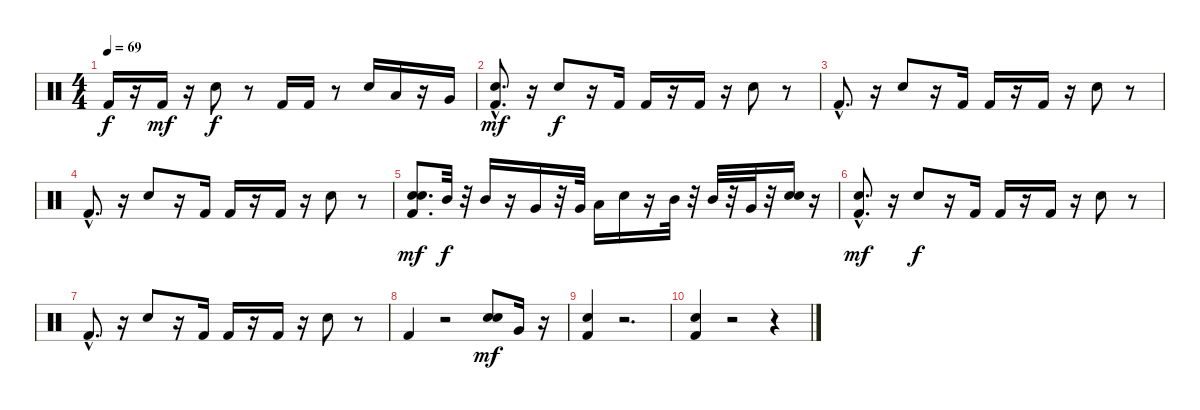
\track "" {instrument percussion}
\staff {score}
\articulation defaults
\ts (4 4)
\tempo 69
\clef neutral
\ks c "Kick (hit) 2".16{dy f}
r.16 "Kick (hit) 2".16{dy mf} r.16 "Snare (hit) 2".8{dy f} r.8 "Kick (hit) 2".16 "Kick (hit) 2".16 r.8 "Snare (hit) 2".16 "Low Tom (hit)".16 r.16 "Very Low Tom (hit)".16 |
("Kick (hit) 2"{hac} "Snare (hit) 2").8{d dy mf} r.16 "Snare (hit) 2".8{dy f} r.16 "Kick (hit) 2".16 "Kick (hit) 2".16 r.16 "Kick (hit) 2".16 r.16 "Snare (hit) 2".8 r.8 |
"Kick (hit) 2"{hac}.8{d} r.16 "Snare (hit) 2".8 r.16 "Kick (hit) 2".16 "Kick (hit) 2".16 r.16 "Kick (hit) 2".16 r.16 "Snare (hit) 2".8 r.8 |
"Kick (hit) 2"{hac}.8{d} r.16 "Snare (hit) 2".8 r.16 "Kick (hit) 2".16 "Kick (hit) 2".16 r.16 "Kick (hit) 2".16 r.16 "Snare (hit) 2".8 r.8 |
("Kick (hit) 2" "Electric Snare (hit)" "Snare (hit) 2").8{d dy mf} "Mid Tom (hit)".32{dy f} r.32 "Mid Tom (hit)".16 r.16 "Very Low Tom (hit)".16 r.32 "Very Low Tom (hit)".32 "Low Tom (hit)".16 "Electric Snare (hit)".16 r.16 "Mid Tom (hit)".32 r.32 "Mid Tom (hit)".32 r.32 "Very Low Tom (hit)".32 r.32 ("Electric Snare (hit)" "Snare (hit) 2").16 r.16 |
("Kick (hit) 2"{hac} "Snare (hit) 2").8{d dy mf} r.16 "Snare (hit) 2".8{dy f} r.16 "Kick (hit) 2".16 "Kick (hit) 2".16 r.16 "Kick (hit) 2".16 r.16 "Snare (hit) 2".8 r.8 |
"Kick (hit) 2"{hac}.8{d} r.16 "Snare (hit) 2".8 r.16 "Kick (hit) 2".16 "Kick (hit) 2".16 r.16 "Kick (hit) 2".16 r.16 "Snare (hit) 2".8 r.8 |
"Kick (hit) 2".4 r.2 ("Snare (hit) 2" "Electric Snare (hit)").8{dy mf} "Very Low Tom (hit)".16 r.16 |
("Kick (hit) 2" "Snare (hit) 2").4 r.2{d} |
("Kick (hit) 2" "Snare (hit) 2").4 r.2 r.4
